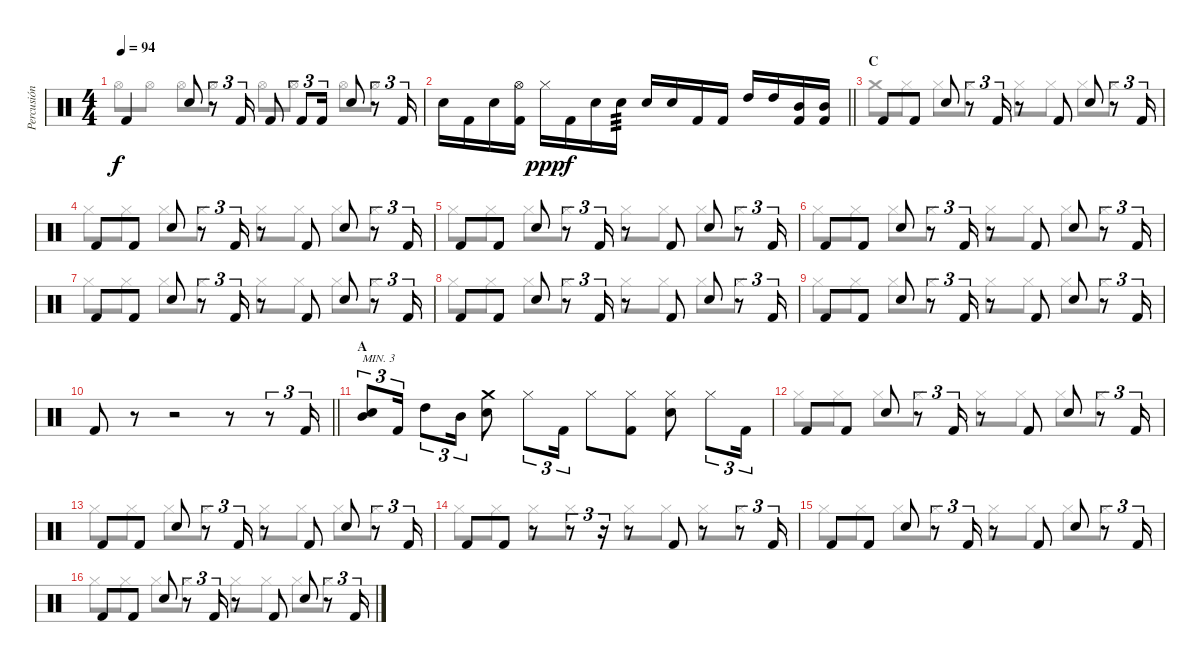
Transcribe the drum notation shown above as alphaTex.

\track ("Percusión" "Percusión") {instrument percussion}
\staff {score}
\articulation defaults
\voice
\ts (4 4)
\tempo 94
\clef neutral
\ks c "Kick (hit) 2".4{dy f} "Electric Snare (hit)".8
r.8{tu (3 2)} "Kick (hit) 2".16{tu (3 2)} "Kick (hit) 2".8 "Kick (hit) 2".8{tu (3 2)} "Kick (hit) 2".16{tu (3 2)} "Electric Snare (hit)".8 r.8{tu (3 2)} "Kick (hit) 2".16{tu (3 2)} |
\barLineRight lightlight "Electric Snare (hit)".16 "Kick (hit) 2".16 "Electric Snare (hit)".16
("Hi-Hat (open)" "Kick (hit) 2").16 "Hi-Hat (closed)".16{dy ppp} "Kick (hit) 2".16{dy f} "Electric Snare (hit)".16 "Electric Snare (hit)".16{tp 3} "Electric Snare (hit)".16 "Electric Snare (hit)".16 "Kick (hit) 2".16 "Kick (hit) 2".16 "High Tom (hit)".16 "High Tom (hit)".16 ("Mid Tom (hit)" "Kick (hit) 2").16 ("Mid Tom (hit)" "Kick (hit) 2").16 |
\section ("" "C")
"Kick (hit) 2".8 "Kick (hit) 2".8 "Electric Snare (hit)".8 r.8{tu (3 2)} "Kick (hit) 2".16{tu (3 2)} r.8 "Kick (hit) 2".8 "Electric Snare (hit)".8 r.8{tu (3 2)} "Kick (hit) 2".16{tu (3 2)} |
"Kick (hit) 2".8 "Kick (hit) 2".8 "Electric Snare (hit)".8 r.8{tu (3 2)} "Kick (hit) 2".16{tu (3 2)} r.8 "Kick (hit) 2".8 "Electric Snare (hit)".8 r.8{tu (3 2)} "Kick (hit) 2".16{tu (3 2)} |
"Kick (hit) 2".8 "Kick (hit) 2".8 "Electric Snare (hit)".8 r.8{tu (3 2)} "Kick (hit) 2".16{tu (3 2)} r.8 "Kick (hit) 2".8 "Electric Snare (hit)".8 r.8{tu (3 2)} "Kick (hit) 2".16{tu (3 2)} |
"Kick (hit) 2".8 "Kick (hit) 2".8 "Electric Snare (hit)".8 r.8{tu (3 2)} "Kick (hit) 2".16{tu (3 2)} r.8 "Kick (hit) 2".8 "Electric Snare (hit)".8 r.8{tu (3 2)} "Kick (hit) 2".16{tu (3 2)} |
"Kick (hit) 2".8 "Kick (hit) 2".8 "Electric Snare (hit)".8 r.8{tu (3 2)} "Kick (hit) 2".16{tu (3 2)} r.8 "Kick (hit) 2".8 "Electric Snare (hit)".8 r.8{tu (3 2)} "Kick (hit) 2".16{tu (3 2)} |
"Kick (hit) 2".8 "Kick (hit) 2".8 "Electric Snare (hit)".8 r.8{tu (3 2)} "Kick (hit) 2".16{tu (3 2)} r.8 "Kick (hit) 2".8 "Electric Snare (hit)".8 r.8{tu (3 2)} "Kick (hit) 2".16{tu (3 2)} |
"Kick (hit) 2".8 "Kick (hit) 2".8 "Electric Snare (hit)".8 r.8{tu (3 2)} "Kick (hit) 2".16{tu (3 2)} r.8 "Kick (hit) 2".8 "Electric Snare (hit)".8 r.8{tu (3 2)} "Kick (hit) 2".16{tu (3 2)} |
\barLineRight lightlight "Kick (hit) 2".8
r.8 r.2 r.8 r.8{tu (3 2)} "Kick (hit) 2".16{tu (3 2)} |
\section ("" "A")
("Mid Tom (hit)" "Electric Snare (hit)").8{tu (3 2) txt "MIN. 3"} "Kick (hit) 2".16{tu (3 2)} "High Tom (hit)".8{tu (3 2)} "Mid Tom (hit)".16{tu (3 2)} ("Crash medium (hit)" "Electric Snare (hit)").8 "Hi-Hat (closed)".8{tu (3 2)} "Kick (hit) 2".16{tu (3 2)} "Hi-Hat (closed)".8 ("Hi-Hat (closed)" "Kick (hit) 2").8 ("Hi-Hat (closed)" "Electric Snare (hit)").8 "Hi-Hat (closed)".8{tu (3 2)} "Kick (hit) 2".16{tu (3 2)} |
"Kick (hit) 2".8 "Kick (hit) 2".8 "Electric Snare (hit)".8 r.8{tu (3 2)} "Kick (hit) 2".16{tu (3 2)} r.8 "Kick (hit) 2".8 "Electric Snare (hit)".8 r.8{tu (3 2)} "Kick (hit) 2".16{tu (3 2)} |
"Kick (hit) 2".8 "Kick (hit) 2".8 "Electric Snare (hit)".8 r.8{tu (3 2)} "Kick (hit) 2".16{tu (3 2)} r.8 "Kick (hit) 2".8 "Electric Snare (hit)".8 r.8{tu (3 2)} "Kick (hit) 2".16{tu (3 2)} |
"Kick (hit) 2".8 "Kick (hit) 2".8 r.8 r.8{tu (3 2)} r.16{tu (3 2)} r.8 "Kick (hit) 2".8 r.8 r.8{tu (3 2)} "Kick (hit) 2".16{tu (3 2)} |
"Kick (hit) 2".8 "Kick (hit) 2".8 "Electric Snare (hit)".8 r.8{tu (3 2)} "Kick (hit) 2".16{tu (3 2)} r.8 "Kick (hit) 2".8 "Electric Snare (hit)".8 r.8{tu (3 2)} "Kick (hit) 2".16{tu (3 2)} |
"Kick (hit) 2".8 "Kick (hit) 2".8 "Electric Snare (hit)".8 r.8{tu (3 2)} "Kick (hit) 2".16{tu (3 2)} r.8 "Kick (hit) 2".8 "Electric Snare (hit)".8 r.8{tu (3 2)} "Kick (hit) 2".16{tu (3 2)}
\voice
\clef neutral
\ottava regular
\simile none
\ks c "Hi-Hat (open)".8{dy f} "Hi-Hat (open)".8 "Hi-Hat (open)".8 "Hi-Hat (open)".8 "Hi-Hat (open)".8 "Hi-Hat (open)".8 "Hi-Hat (open)".8 "Hi-Hat (open)".8
|
\barLineRight lightlight
|
"Crash medium (hit)".8 "Hi-Hat (closed)".8 "Hi-Hat (closed)".8 "Hi-Hat (closed)".8 "Hi-Hat (closed)".8 "Hi-Hat (closed)".8 "Hi-Hat (closed)".8 "Hi-Hat (closed)".8 |
"Hi-Hat (closed)".8 "Hi-Hat (closed)".8 "Hi-Hat (closed)".8 "Hi-Hat (closed)".8 "Hi-Hat (closed)".8 "Hi-Hat (closed)".8 "Hi-Hat (closed)".8 "Hi-Hat (closed)".8 |
"Hi-Hat (closed)".8 "Hi-Hat (closed)".8 "Hi-Hat (closed)".8 "Hi-Hat (closed)".8 "Hi-Hat (closed)".8 "Hi-Hat (closed)".8 "Hi-Hat (closed)".8 "Hi-Hat (closed)".8 |
"Hi-Hat (closed)".8 "Hi-Hat (closed)".8 "Hi-Hat (closed)".8 "Hi-Hat (closed)".8 "Hi-Hat (closed)".8 "Hi-Hat (closed)".8 "Hi-Hat (closed)".8 "Hi-Hat (closed)".8 |
"Hi-Hat (closed)".8 "Hi-Hat (closed)".8 "Hi-Hat (closed)".8 "Hi-Hat (closed)".8 "Hi-Hat (closed)".8 "Hi-Hat (closed)".8 "Hi-Hat (closed)".8 "Hi-Hat (closed)".8 |
"Hi-Hat (closed)".8 "Hi-Hat (closed)".8 "Hi-Hat (closed)".8 "Hi-Hat (closed)".8 "Hi-Hat (closed)".8 "Hi-Hat (closed)".8 "Hi-Hat (closed)".8 "Hi-Hat (closed)".8 |
"Hi-Hat (closed)".8 "Hi-Hat (closed)".8 "Hi-Hat (closed)".8 "Hi-Hat (closed)".8 "Hi-Hat (closed)".8 "Hi-Hat (closed)".8 "Hi-Hat (closed)".8 "Hi-Hat (closed)".8 |
\barLineRight lightlight
|
|
"Hi-Hat (closed)".8 "Hi-Hat (closed)".8 "Hi-Hat (closed)".8 "Hi-Hat (closed)".8 "Hi-Hat (closed)".8 "Hi-Hat (closed)".8 "Hi-Hat (closed)".8 "Hi-Hat (closed)".8 |
"Hi-Hat (closed)".8 "Hi-Hat (closed)".8 "Hi-Hat (closed)".8 "Hi-Hat (closed)".8 "Hi-Hat (closed)".8 "Hi-Hat (closed)".8 "Hi-Hat (closed)".8 "Hi-Hat (closed)".8 |
"Hi-Hat (closed)".8 "Hi-Hat (closed)".8 "Hi-Hat (closed)".8 "Hi-Hat (closed)".8 "Hi-Hat (closed)".8 "Hi-Hat (closed)".8 "Hi-Hat (closed)".8 "Hi-Hat (closed)".8 |
"Hi-Hat (closed)".8 "Hi-Hat (closed)".8 "Hi-Hat (closed)".8 "Hi-Hat (closed)".8 "Hi-Hat (closed)".8 "Hi-Hat (closed)".8 "Hi-Hat (closed)".8 "Hi-Hat (closed)".8 |
"Hi-Hat (closed)".8 "Hi-Hat (closed)".8 "Hi-Hat (closed)".8 "Hi-Hat (closed)".8 "Hi-Hat (closed)".8 "Hi-Hat (closed)".8 "Hi-Hat (closed)".8 "Hi-Hat (closed)".8
